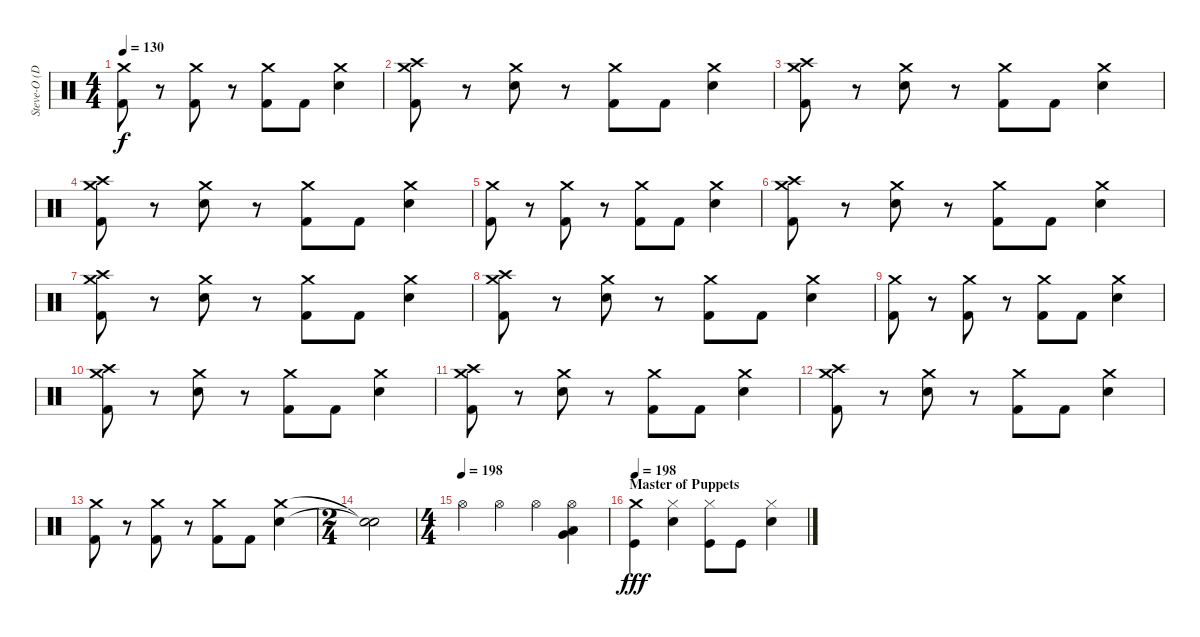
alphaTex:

\track ("Steve-O (Drums)" "Steve-O (D") {instrument percussion}
\staff {score}
\articulation defaults
\ts (4 4)
\tempo 130
\clef neutral
\ks c
("Crash medium (hit)" "Kick (hit) 2").8{dy f} r.8 ("Crash medium (hit)" "Kick (hit) 2").8 r.8 ("Crash medium (hit)" "Kick (hit) 2").8 "Kick (hit) 2".8 ("Crash medium (hit)" "Electric Snare (hit)").4 |
("Crash high (hit)" "Crash medium (hit)" "Kick (hit) 2").8 r.8 ("Crash medium (hit)" "Electric Snare (hit)").8 r.8 ("Crash medium (hit)" "Kick (hit) 2").8 "Kick (hit) 2".8 ("Crash medium (hit)" "Electric Snare (hit)").4 |
("Crash high (hit)" "Crash medium (hit)" "Kick (hit) 2").8 r.8 ("Crash medium (hit)" "Electric Snare (hit)").8 r.8 ("Crash medium (hit)" "Kick (hit) 2").8 "Kick (hit) 2".8 ("Crash medium (hit)" "Electric Snare (hit)").4 |
("Crash high (hit)" "Crash medium (hit)" "Kick (hit) 2").8 r.8 ("Crash medium (hit)" "Electric Snare (hit)").8 r.8 ("Crash medium (hit)" "Kick (hit) 2").8 "Kick (hit) 2".8 ("Crash medium (hit)" "Electric Snare (hit)").4 |
("Crash medium (hit)" "Kick (hit) 2").8 r.8 ("Crash medium (hit)" "Kick (hit) 2").8 r.8 ("Crash medium (hit)" "Kick (hit) 2").8 "Kick (hit) 2".8 ("Crash medium (hit)" "Electric Snare (hit)").4 |
("Crash high (hit)" "Crash medium (hit)" "Kick (hit) 2").8 r.8 ("Crash medium (hit)" "Electric Snare (hit)").8 r.8 ("Crash medium (hit)" "Kick (hit) 2").8 "Kick (hit) 2".8 ("Crash medium (hit)" "Electric Snare (hit)").4 |
("Crash high (hit)" "Crash medium (hit)" "Kick (hit) 2").8 r.8 ("Crash medium (hit)" "Electric Snare (hit)").8 r.8 ("Crash medium (hit)" "Kick (hit) 2").8 "Kick (hit) 2".8 ("Crash medium (hit)" "Electric Snare (hit)").4 |
("Crash high (hit)" "Crash medium (hit)" "Kick (hit) 2").8 r.8 ("Crash medium (hit)" "Electric Snare (hit)").8 r.8 ("Crash medium (hit)" "Kick (hit) 2").8 "Kick (hit) 2".8 ("Crash medium (hit)" "Electric Snare (hit)").4 |
("Crash medium (hit)" "Kick (hit) 2").8 r.8 ("Crash medium (hit)" "Kick (hit) 2").8 r.8 ("Crash medium (hit)" "Kick (hit) 2").8 "Kick (hit) 2".8 ("Crash medium (hit)" "Electric Snare (hit)").4 |
("Crash high (hit)" "Crash medium (hit)" "Kick (hit) 2").8 r.8 ("Crash medium (hit)" "Electric Snare (hit)").8 r.8 ("Crash medium (hit)" "Kick (hit) 2").8 "Kick (hit) 2".8 ("Crash medium (hit)" "Electric Snare (hit)").4 |
("Crash high (hit)" "Crash medium (hit)" "Kick (hit) 2").8 r.8 ("Crash medium (hit)" "Electric Snare (hit)").8 r.8 ("Crash medium (hit)" "Kick (hit) 2").8 "Kick (hit) 2".8 ("Crash medium (hit)" "Electric Snare (hit)").4 |
("Crash high (hit)" "Crash medium (hit)" "Kick (hit) 2").8 r.8 ("Crash medium (hit)" "Electric Snare (hit)").8 r.8 ("Crash medium (hit)" "Kick (hit) 2").8 "Kick (hit) 2".8 ("Crash medium (hit)" "Electric Snare (hit)").4 |
("Crash medium (hit)" "Kick (hit) 2").8 r.8 ("Crash medium (hit)" "Kick (hit) 2").8 r.8 ("Crash medium (hit)" "Kick (hit) 2").8 "Kick (hit) 2".8 ("Crash medium (hit)" "Electric Snare (hit)").4 |
\ts (2 4)
("Snare (hit)"{t} "Snare (hit)"{t}).2 |
\ts (4 4)
\tempo (198)
"Hi-Hat (open)".4 "Hi-Hat (open)".4 "Hi-Hat (open)".4 ("Hi-Hat (open)" "Low Floor Tom (hit)" "Very Low Tom (hit)").4 |
\section ("" "Master of Puppets")
\tempo 198
("Kick (hit)" "Crash medium (hit)").4{dy fff} ("Snare (hit) 2" "Hi-Hat (closed)").4 ("Hi-Hat (closed)" "Kick (hit)").8 "Kick (hit)".8 ("Snare (hit) 2" "Hi-Hat (closed)").4
